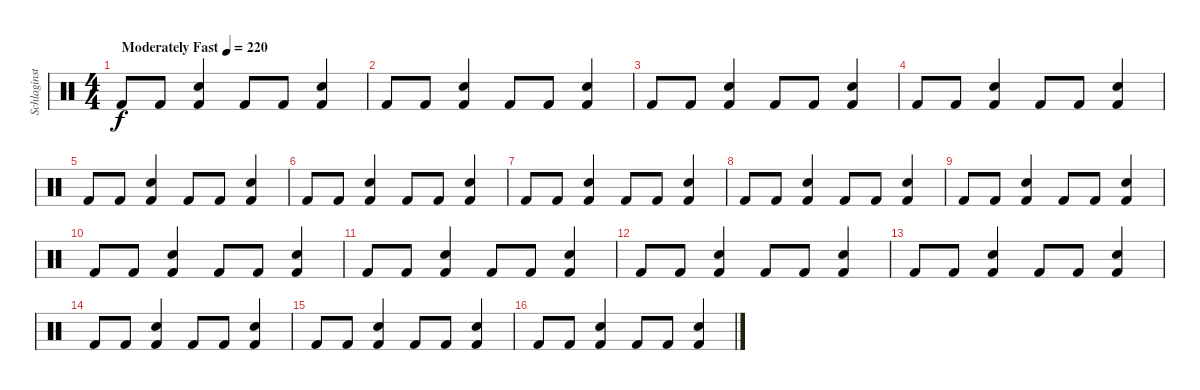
\track ("Schlaginstrumente - Auswahl" "Schlaginst") {instrument percussion}
\staff {score}
\articulation defaults
\ts (4 4)
\tempo (220 "Moderately Fast")
\clef neutral
\ks c "Kick (hit) 2".8{dy f} "Kick (hit) 2".8
("Snare (hit) 2" "Kick (hit) 2").4 "Kick (hit) 2".8 "Kick (hit) 2".8 ("Snare (hit) 2" "Kick (hit) 2").4 |
"Kick (hit) 2".8 "Kick (hit) 2".8 ("Snare (hit) 2" "Kick (hit) 2").4 "Kick (hit) 2".8 "Kick (hit) 2".8 ("Snare (hit) 2" "Kick (hit) 2").4 |
"Kick (hit) 2".8 "Kick (hit) 2".8 ("Snare (hit) 2" "Kick (hit) 2").4 "Kick (hit) 2".8 "Kick (hit) 2".8 ("Snare (hit) 2" "Kick (hit) 2").4 |
"Kick (hit) 2".8 "Kick (hit) 2".8 ("Snare (hit) 2" "Kick (hit) 2").4 "Kick (hit) 2".8 "Kick (hit) 2".8 ("Snare (hit) 2" "Kick (hit) 2").4 |
"Kick (hit) 2".8 "Kick (hit) 2".8 ("Snare (hit) 2" "Kick (hit) 2").4 "Kick (hit) 2".8 "Kick (hit) 2".8 ("Snare (hit) 2" "Kick (hit) 2").4 |
"Kick (hit) 2".8 "Kick (hit) 2".8 ("Snare (hit) 2" "Kick (hit) 2").4 "Kick (hit) 2".8 "Kick (hit) 2".8 ("Snare (hit) 2" "Kick (hit) 2").4 |
"Kick (hit) 2".8 "Kick (hit) 2".8 ("Snare (hit) 2" "Kick (hit) 2").4 "Kick (hit) 2".8 "Kick (hit) 2".8 ("Snare (hit) 2" "Kick (hit) 2").4 |
"Kick (hit) 2".8 "Kick (hit) 2".8 ("Snare (hit) 2" "Kick (hit) 2").4 "Kick (hit) 2".8 "Kick (hit) 2".8 ("Snare (hit) 2" "Kick (hit) 2").4 |
"Kick (hit) 2".8 "Kick (hit) 2".8 ("Snare (hit) 2" "Kick (hit) 2").4 "Kick (hit) 2".8 "Kick (hit) 2".8 ("Snare (hit) 2" "Kick (hit) 2").4 |
"Kick (hit) 2".8 "Kick (hit) 2".8 ("Snare (hit) 2" "Kick (hit) 2").4 "Kick (hit) 2".8 "Kick (hit) 2".8 ("Snare (hit) 2" "Kick (hit) 2").4 |
"Kick (hit) 2".8 "Kick (hit) 2".8 ("Snare (hit) 2" "Kick (hit) 2").4 "Kick (hit) 2".8 "Kick (hit) 2".8 ("Snare (hit) 2" "Kick (hit) 2").4 |
"Kick (hit) 2".8 "Kick (hit) 2".8 ("Snare (hit) 2" "Kick (hit) 2").4 "Kick (hit) 2".8 "Kick (hit) 2".8 ("Snare (hit) 2" "Kick (hit) 2").4 |
"Kick (hit) 2".8 "Kick (hit) 2".8 ("Snare (hit) 2" "Kick (hit) 2").4 "Kick (hit) 2".8 "Kick (hit) 2".8 ("Snare (hit) 2" "Kick (hit) 2").4 |
"Kick (hit) 2".8 "Kick (hit) 2".8 ("Snare (hit) 2" "Kick (hit) 2").4 "Kick (hit) 2".8 "Kick (hit) 2".8 ("Snare (hit) 2" "Kick (hit) 2").4 |
"Kick (hit) 2".8 "Kick (hit) 2".8 ("Snare (hit) 2" "Kick (hit) 2").4 "Kick (hit) 2".8 "Kick (hit) 2".8 ("Snare (hit) 2" "Kick (hit) 2").4 |
"Kick (hit) 2".8 "Kick (hit) 2".8 ("Snare (hit) 2" "Kick (hit) 2").4 "Kick (hit) 2".8 "Kick (hit) 2".8 ("Snare (hit) 2" "Kick (hit) 2").4
